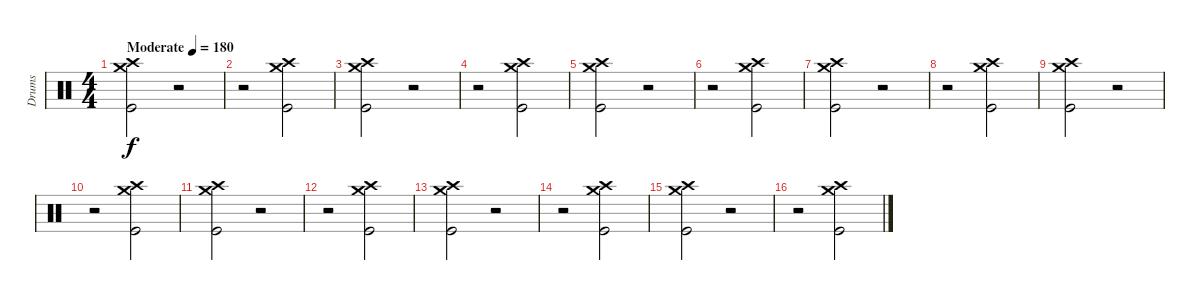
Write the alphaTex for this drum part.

\track ("Drums" "Drums") {instrument percussion}
\staff {score}
\articulation defaults
\ts (4 4)
\tempo (180 "Moderate")
\clef neutral
\ks c
("Crash medium (hit)" "Crash high (hit)" "Kick (hit)").2{dy f} r.2 |
r.2 ("Crash medium (hit)" "Crash high (hit)" "Kick (hit)").2 |
("Crash medium (hit)" "Crash high (hit)" "Kick (hit)").2 r.2 |
r.2 ("Crash medium (hit)" "Crash high (hit)" "Kick (hit)").2 |
("Crash medium (hit)" "Crash high (hit)" "Kick (hit)").2 r.2 |
r.2 ("Crash medium (hit)" "Crash high (hit)" "Kick (hit)").2 |
("Crash medium (hit)" "Crash high (hit)" "Kick (hit)").2 r.2 |
r.2 ("Crash medium (hit)" "Crash high (hit)" "Kick (hit)").2 |
("Crash medium (hit)" "Crash high (hit)" "Kick (hit)").2 r.2 |
r.2 ("Crash medium (hit)" "Crash high (hit)" "Kick (hit)").2 |
("Crash medium (hit)" "Crash high (hit)" "Kick (hit)").2 r.2 |
r.2 ("Crash medium (hit)" "Crash high (hit)" "Kick (hit)").2 |
("Crash medium (hit)" "Crash high (hit)" "Kick (hit)").2 r.2 |
r.2 ("Crash medium (hit)" "Crash high (hit)" "Kick (hit)").2 |
("Crash medium (hit)" "Crash high (hit)" "Kick (hit)").2 r.2 |
r.2 ("Crash medium (hit)" "Crash high (hit)" "Kick (hit)").2
